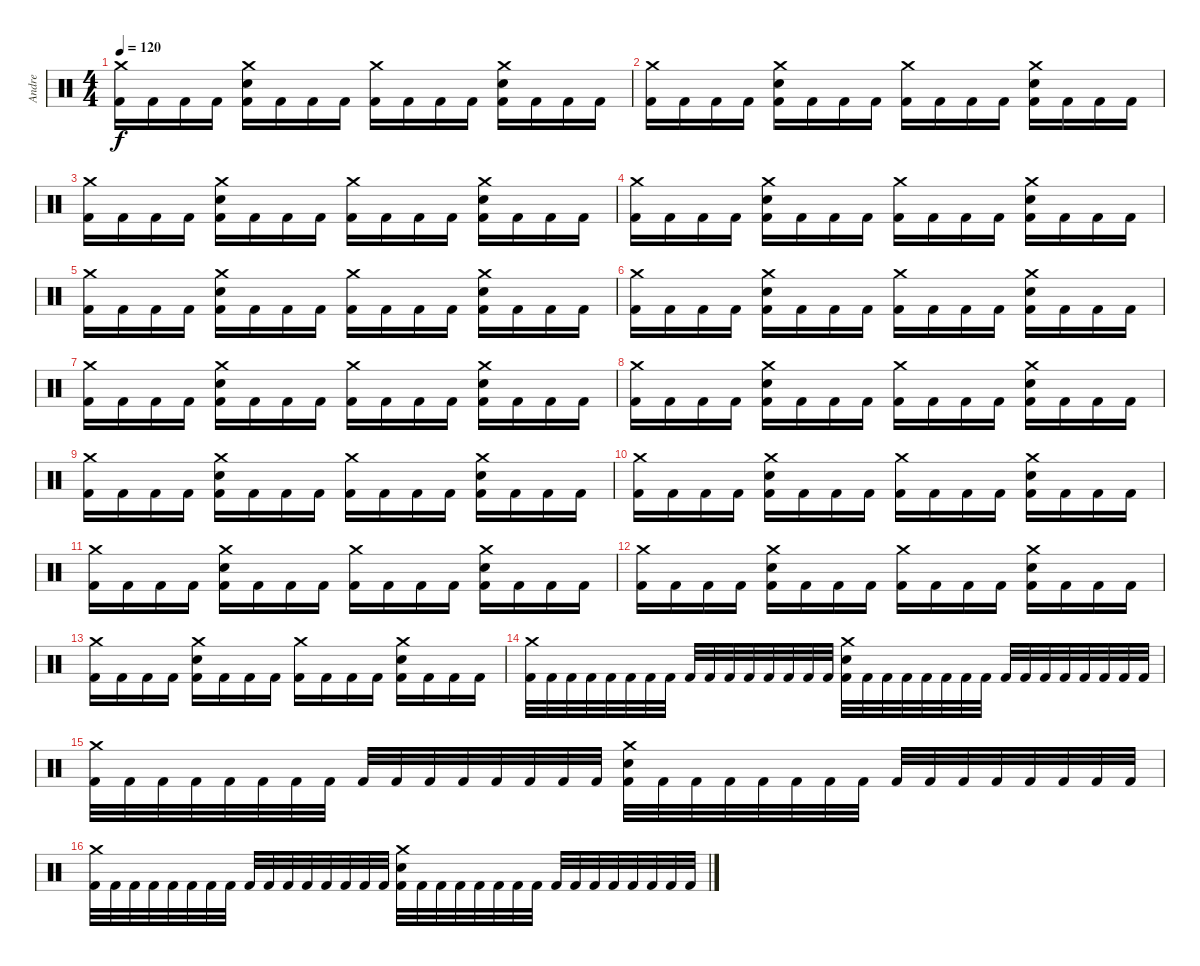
\track ("Andre" "Andre") {instrument percussion}
\staff {score}
\articulation defaults
\ts (4 4)
\tempo 120
\clef neutral
\ks c
("Crash medium (hit)" "Kick (hit) 2").16{dy f} "Kick (hit) 2".16 "Kick (hit) 2".16 "Kick (hit) 2".16 ("Crash medium (hit)" "Snare (hit) 2" "Kick (hit) 2").16 "Kick (hit) 2".16 "Kick (hit) 2".16 "Kick (hit) 2".16 ("Crash medium (hit)" "Kick (hit) 2").16 "Kick (hit) 2".16 "Kick (hit) 2".16 "Kick (hit) 2".16 ("Crash medium (hit)" "Snare (hit) 2" "Kick (hit) 2").16 "Kick (hit) 2".16 "Kick (hit) 2".16 "Kick (hit) 2".16 |
("Crash medium (hit)" "Kick (hit) 2").16 "Kick (hit) 2".16 "Kick (hit) 2".16 "Kick (hit) 2".16 ("Crash medium (hit)" "Snare (hit) 2" "Kick (hit) 2").16 "Kick (hit) 2".16 "Kick (hit) 2".16 "Kick (hit) 2".16 ("Crash medium (hit)" "Kick (hit) 2").16 "Kick (hit) 2".16 "Kick (hit) 2".16 "Kick (hit) 2".16 ("Crash medium (hit)" "Snare (hit) 2" "Kick (hit) 2").16 "Kick (hit) 2".16 "Kick (hit) 2".16 "Kick (hit) 2".16 |
("Crash medium (hit)" "Kick (hit) 2").16 "Kick (hit) 2".16 "Kick (hit) 2".16 "Kick (hit) 2".16 ("Crash medium (hit)" "Snare (hit) 2" "Kick (hit) 2").16 "Kick (hit) 2".16 "Kick (hit) 2".16 "Kick (hit) 2".16 ("Crash medium (hit)" "Kick (hit) 2").16 "Kick (hit) 2".16 "Kick (hit) 2".16 "Kick (hit) 2".16 ("Crash medium (hit)" "Snare (hit) 2" "Kick (hit) 2").16 "Kick (hit) 2".16 "Kick (hit) 2".16 "Kick (hit) 2".16 |
("Crash medium (hit)" "Kick (hit) 2").16 "Kick (hit) 2".16 "Kick (hit) 2".16 "Kick (hit) 2".16 ("Crash medium (hit)" "Snare (hit) 2" "Kick (hit) 2").16 "Kick (hit) 2".16 "Kick (hit) 2".16 "Kick (hit) 2".16 ("Crash medium (hit)" "Kick (hit) 2").16 "Kick (hit) 2".16 "Kick (hit) 2".16 "Kick (hit) 2".16 ("Crash medium (hit)" "Snare (hit) 2" "Kick (hit) 2").16 "Kick (hit) 2".16 "Kick (hit) 2".16 "Kick (hit) 2".16 |
("Crash medium (hit)" "Kick (hit) 2").16 "Kick (hit) 2".16 "Kick (hit) 2".16 "Kick (hit) 2".16 ("Crash medium (hit)" "Snare (hit) 2" "Kick (hit) 2").16 "Kick (hit) 2".16 "Kick (hit) 2".16 "Kick (hit) 2".16 ("Crash medium (hit)" "Kick (hit) 2").16 "Kick (hit) 2".16 "Kick (hit) 2".16 "Kick (hit) 2".16 ("Crash medium (hit)" "Snare (hit) 2" "Kick (hit) 2").16 "Kick (hit) 2".16 "Kick (hit) 2".16 "Kick (hit) 2".16 |
("Crash medium (hit)" "Kick (hit) 2").16 "Kick (hit) 2".16 "Kick (hit) 2".16 "Kick (hit) 2".16 ("Crash medium (hit)" "Snare (hit) 2" "Kick (hit) 2").16 "Kick (hit) 2".16 "Kick (hit) 2".16 "Kick (hit) 2".16 ("Crash medium (hit)" "Kick (hit) 2").16 "Kick (hit) 2".16 "Kick (hit) 2".16 "Kick (hit) 2".16 ("Crash medium (hit)" "Snare (hit) 2" "Kick (hit) 2").16 "Kick (hit) 2".16 "Kick (hit) 2".16 "Kick (hit) 2".16 |
("Crash medium (hit)" "Kick (hit) 2").16 "Kick (hit) 2".16 "Kick (hit) 2".16 "Kick (hit) 2".16 ("Crash medium (hit)" "Snare (hit) 2" "Kick (hit) 2").16 "Kick (hit) 2".16 "Kick (hit) 2".16 "Kick (hit) 2".16 ("Crash medium (hit)" "Kick (hit) 2").16 "Kick (hit) 2".16 "Kick (hit) 2".16 "Kick (hit) 2".16 ("Crash medium (hit)" "Snare (hit) 2" "Kick (hit) 2").16 "Kick (hit) 2".16 "Kick (hit) 2".16 "Kick (hit) 2".16 |
("Crash medium (hit)" "Kick (hit) 2").16 "Kick (hit) 2".16 "Kick (hit) 2".16 "Kick (hit) 2".16 ("Crash medium (hit)" "Snare (hit) 2" "Kick (hit) 2").16 "Kick (hit) 2".16 "Kick (hit) 2".16 "Kick (hit) 2".16 ("Crash medium (hit)" "Kick (hit) 2").16 "Kick (hit) 2".16 "Kick (hit) 2".16 "Kick (hit) 2".16 ("Crash medium (hit)" "Snare (hit) 2" "Kick (hit) 2").16 "Kick (hit) 2".16 "Kick (hit) 2".16 "Kick (hit) 2".16 |
("Crash medium (hit)" "Kick (hit) 2").16 "Kick (hit) 2".16 "Kick (hit) 2".16 "Kick (hit) 2".16 ("Crash medium (hit)" "Snare (hit) 2" "Kick (hit) 2").16 "Kick (hit) 2".16 "Kick (hit) 2".16 "Kick (hit) 2".16 ("Crash medium (hit)" "Kick (hit) 2").16 "Kick (hit) 2".16 "Kick (hit) 2".16 "Kick (hit) 2".16 ("Crash medium (hit)" "Snare (hit) 2" "Kick (hit) 2").16 "Kick (hit) 2".16 "Kick (hit) 2".16 "Kick (hit) 2".16 |
("Crash medium (hit)" "Kick (hit) 2").16 "Kick (hit) 2".16 "Kick (hit) 2".16 "Kick (hit) 2".16 ("Crash medium (hit)" "Snare (hit) 2" "Kick (hit) 2").16 "Kick (hit) 2".16 "Kick (hit) 2".16 "Kick (hit) 2".16 ("Crash medium (hit)" "Kick (hit) 2").16 "Kick (hit) 2".16 "Kick (hit) 2".16 "Kick (hit) 2".16 ("Crash medium (hit)" "Snare (hit) 2" "Kick (hit) 2").16 "Kick (hit) 2".16 "Kick (hit) 2".16 "Kick (hit) 2".16 |
("Crash medium (hit)" "Kick (hit) 2").16 "Kick (hit) 2".16 "Kick (hit) 2".16 "Kick (hit) 2".16 ("Crash medium (hit)" "Snare (hit) 2" "Kick (hit) 2").16 "Kick (hit) 2".16 "Kick (hit) 2".16 "Kick (hit) 2".16 ("Crash medium (hit)" "Kick (hit) 2").16 "Kick (hit) 2".16 "Kick (hit) 2".16 "Kick (hit) 2".16 ("Crash medium (hit)" "Snare (hit) 2" "Kick (hit) 2").16 "Kick (hit) 2".16 "Kick (hit) 2".16 "Kick (hit) 2".16 |
("Crash medium (hit)" "Kick (hit) 2").16 "Kick (hit) 2".16 "Kick (hit) 2".16 "Kick (hit) 2".16 ("Crash medium (hit)" "Snare (hit) 2" "Kick (hit) 2").16 "Kick (hit) 2".16 "Kick (hit) 2".16 "Kick (hit) 2".16 ("Crash medium (hit)" "Kick (hit) 2").16 "Kick (hit) 2".16 "Kick (hit) 2".16 "Kick (hit) 2".16 ("Crash medium (hit)" "Snare (hit) 2" "Kick (hit) 2").16 "Kick (hit) 2".16 "Kick (hit) 2".16 "Kick (hit) 2".16 |
("Crash medium (hit)" "Kick (hit) 2").16 "Kick (hit) 2".16 "Kick (hit) 2".16 "Kick (hit) 2".16 ("Crash medium (hit)" "Snare (hit) 2" "Kick (hit) 2").16 "Kick (hit) 2".16 "Kick (hit) 2".16 "Kick (hit) 2".16 ("Crash medium (hit)" "Kick (hit) 2").16 "Kick (hit) 2".16 "Kick (hit) 2".16 "Kick (hit) 2".16 ("Crash medium (hit)" "Snare (hit) 2" "Kick (hit) 2").16 "Kick (hit) 2".16 "Kick (hit) 2".16 "Kick (hit) 2".16 |
("Crash medium (hit)" "Kick (hit) 2").32 "Kick (hit) 2".32 "Kick (hit) 2".32 "Kick (hit) 2".32 "Kick (hit) 2".32 "Kick (hit) 2".32 "Kick (hit) 2".32 "Kick (hit) 2".32 "Kick (hit) 2".32 "Kick (hit) 2".32 "Kick (hit) 2".32 "Kick (hit) 2".32 "Kick (hit) 2".32 "Kick (hit) 2".32 "Kick (hit) 2".32 "Kick (hit) 2".32 ("Crash medium (hit)" "Snare (hit) 2" "Kick (hit) 2").32 "Kick (hit) 2".32 "Kick (hit) 2".32 "Kick (hit) 2".32 "Kick (hit) 2".32 "Kick (hit) 2".32 "Kick (hit) 2".32 "Kick (hit) 2".32 "Kick (hit) 2".32 "Kick (hit) 2".32 "Kick (hit) 2".32 "Kick (hit) 2".32 "Kick (hit) 2".32 "Kick (hit) 2".32 "Kick (hit) 2".32 "Kick (hit) 2".32 |
("Crash medium (hit)" "Kick (hit) 2").32 "Kick (hit) 2".32 "Kick (hit) 2".32 "Kick (hit) 2".32 "Kick (hit) 2".32 "Kick (hit) 2".32 "Kick (hit) 2".32 "Kick (hit) 2".32 "Kick (hit) 2".32 "Kick (hit) 2".32 "Kick (hit) 2".32 "Kick (hit) 2".32 "Kick (hit) 2".32 "Kick (hit) 2".32 "Kick (hit) 2".32 "Kick (hit) 2".32 ("Crash medium (hit)" "Snare (hit) 2" "Kick (hit) 2").32 "Kick (hit) 2".32 "Kick (hit) 2".32 "Kick (hit) 2".32 "Kick (hit) 2".32 "Kick (hit) 2".32 "Kick (hit) 2".32 "Kick (hit) 2".32 "Kick (hit) 2".32 "Kick (hit) 2".32 "Kick (hit) 2".32 "Kick (hit) 2".32 "Kick (hit) 2".32 "Kick (hit) 2".32 "Kick (hit) 2".32 "Kick (hit) 2".32 |
("Crash medium (hit)" "Kick (hit) 2").32 "Kick (hit) 2".32 "Kick (hit) 2".32 "Kick (hit) 2".32 "Kick (hit) 2".32 "Kick (hit) 2".32 "Kick (hit) 2".32 "Kick (hit) 2".32 "Kick (hit) 2".32 "Kick (hit) 2".32 "Kick (hit) 2".32 "Kick (hit) 2".32 "Kick (hit) 2".32 "Kick (hit) 2".32 "Kick (hit) 2".32 "Kick (hit) 2".32 ("Crash medium (hit)" "Snare (hit) 2" "Kick (hit) 2").32 "Kick (hit) 2".32 "Kick (hit) 2".32 "Kick (hit) 2".32 "Kick (hit) 2".32 "Kick (hit) 2".32 "Kick (hit) 2".32 "Kick (hit) 2".32 "Kick (hit) 2".32 "Kick (hit) 2".32 "Kick (hit) 2".32 "Kick (hit) 2".32 "Kick (hit) 2".32 "Kick (hit) 2".32 "Kick (hit) 2".32 "Kick (hit) 2".32
